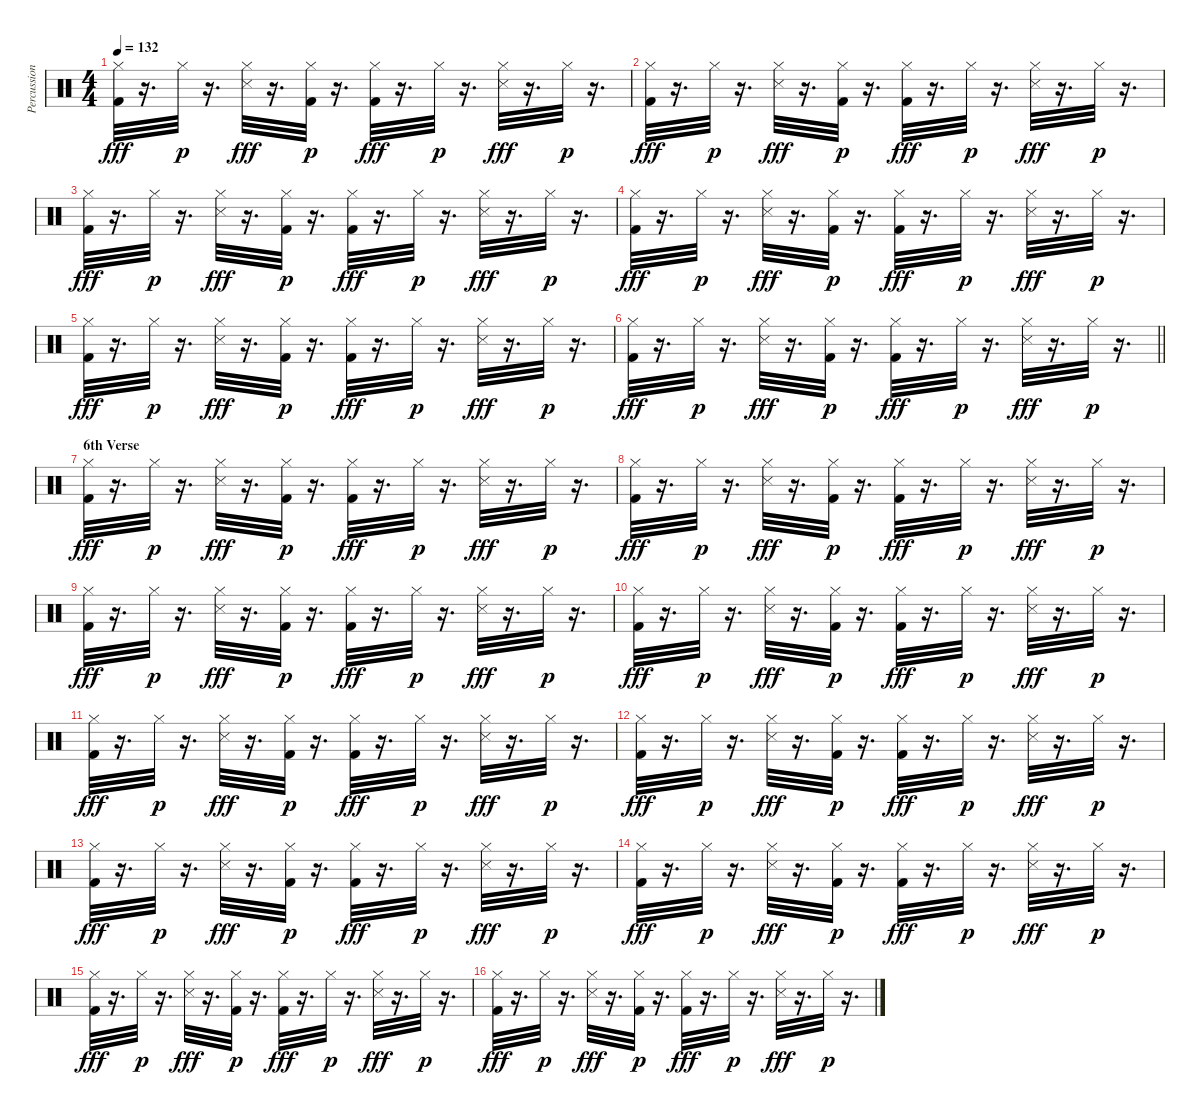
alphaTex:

\track ("Percussion" "Percussion") {instrument percussion}
\staff {score}
\articulation defaults
\ts (4 4)
\tempo 132
\clef neutral
\ks c
("Kick (hit) 2" "Hi-Hat (closed)").32{dy fff} r.16{d} "Hi-Hat (closed)".32{dy p} r.16{d} ("Snare (side stick) 3" "Hi-Hat (closed)").32{dy fff} r.16{d} ("Kick (hit) 2" "Hi-Hat (closed)").32{dy p} r.16{d} ("Kick (hit) 2" "Hi-Hat (closed)").32{dy fff} r.16{d} "Hi-Hat (closed)".32{dy p} r.16{d} ("Hi-Hat (closed)" "Snare (side stick) 3").32{dy fff} r.16{d} "Hi-Hat (closed)".32{dy p} r.16{d} |
("Kick (hit) 2" "Hi-Hat (closed)").32{dy fff} r.16{d} "Hi-Hat (closed)".32{dy p} r.16{d} ("Snare (side stick) 3" "Hi-Hat (closed)").32{dy fff} r.16{d} ("Kick (hit) 2" "Hi-Hat (closed)").32{dy p} r.16{d} ("Kick (hit) 2" "Hi-Hat (closed)").32{dy fff} r.16{d} "Hi-Hat (closed)".32{dy p} r.16{d} ("Snare (side stick) 3" "Hi-Hat (closed)").32{dy fff} r.16{d} "Hi-Hat (closed)".32{dy p} r.16{d} |
("Kick (hit) 2" "Hi-Hat (closed)").32{dy fff} r.16{d} "Hi-Hat (closed)".32{dy p} r.16{d} ("Hi-Hat (closed)" "Snare (side stick) 3").32{dy fff} r.16{d} ("Kick (hit) 2" "Hi-Hat (closed)").32{dy p} r.16{d} ("Kick (hit) 2" "Hi-Hat (closed)").32{dy fff} r.16{d} "Hi-Hat (closed)".32{dy p} r.16{d} ("Hi-Hat (closed)" "Snare (side stick) 3").32{dy fff} r.16{d} "Hi-Hat (closed)".32{dy p} r.16{d} |
("Kick (hit) 2" "Hi-Hat (closed)").32{dy fff} r.16{d} "Hi-Hat (closed)".32{dy p} r.16{d} ("Snare (side stick) 3" "Hi-Hat (closed)").32{dy fff} r.16{d} ("Kick (hit) 2" "Hi-Hat (closed)").32{dy p} r.16{d} ("Kick (hit) 2" "Hi-Hat (closed)").32{dy fff} r.16{d} "Hi-Hat (closed)".32{dy p} r.16{d} ("Hi-Hat (closed)" "Snare (side stick) 3").32{dy fff} r.16{d} "Hi-Hat (closed)".32{dy p} r.16{d} |
("Kick (hit) 2" "Hi-Hat (closed)").32{dy fff} r.16{d} "Hi-Hat (closed)".32{dy p} r.16{d} ("Hi-Hat (closed)" "Snare (side stick) 3").32{dy fff} r.16{d} ("Kick (hit) 2" "Hi-Hat (closed)").32{dy p} r.16{d} ("Kick (hit) 2" "Hi-Hat (closed)").32{dy fff} r.16{d} "Hi-Hat (closed)".32{dy p} r.16{d} ("Hi-Hat (closed)" "Snare (side stick) 3").32{dy fff} r.16{d} "Hi-Hat (closed)".32{dy p} r.16{d} |
\barLineRight lightlight
("Kick (hit) 2" "Hi-Hat (closed)").32{dy fff} r.16{d} "Hi-Hat (closed)".32{dy p} r.16{d} ("Snare (side stick) 3" "Hi-Hat (closed)").32{dy fff} r.16{d} ("Kick (hit) 2" "Hi-Hat (closed)").32{dy p} r.16{d} ("Kick (hit) 2" "Hi-Hat (closed)").32{dy fff} r.16{d} "Hi-Hat (closed)".32{dy p} r.16{d} ("Hi-Hat (closed)" "Snare (side stick) 3").32{dy fff} r.16{d} "Hi-Hat (closed)".32{dy p} r.16{d} |
\section ("" "6th Verse")
("Kick (hit) 2" "Hi-Hat (closed)").32{dy fff} r.16{d} "Hi-Hat (closed)".32{dy p} r.16{d} ("Snare (side stick) 3" "Hi-Hat (closed)").32{dy fff} r.16{d} ("Kick (hit) 2" "Hi-Hat (closed)").32{dy p} r.16{d} ("Kick (hit) 2" "Hi-Hat (closed)").32{dy fff} r.16{d} "Hi-Hat (closed)".32{dy p} r.16{d} ("Snare (side stick) 3" "Hi-Hat (closed)").32{dy fff} r.16{d} "Hi-Hat (closed)".32{dy p} r.16{d} |
("Kick (hit) 2" "Hi-Hat (closed)").32{dy fff} r.16{d} "Hi-Hat (closed)".32{dy p} r.16{d} ("Snare (side stick) 3" "Hi-Hat (closed)").32{dy fff} r.16{d} ("Kick (hit) 2" "Hi-Hat (closed)").32{dy p} r.16{d} ("Kick (hit) 2" "Hi-Hat (closed)").32{dy fff} r.16{d} "Hi-Hat (closed)".32{dy p} r.16{d} ("Snare (side stick) 3" "Hi-Hat (closed)").32{dy fff} r.16{d} "Hi-Hat (closed)".32{dy p} r.16{d} |
("Kick (hit) 2" "Hi-Hat (closed)").32{dy fff} r.16{d} "Hi-Hat (closed)".32{dy p} r.16{d} ("Hi-Hat (closed)" "Snare (side stick) 3").32{dy fff} r.16{d} ("Kick (hit) 2" "Hi-Hat (closed)").32{dy p} r.16{d} ("Kick (hit) 2" "Hi-Hat (closed)").32{dy fff} r.16{d} "Hi-Hat (closed)".32{dy p} r.16{d} ("Snare (side stick) 3" "Hi-Hat (closed)").32{dy fff} r.16{d} "Hi-Hat (closed)".32{dy p} r.16{d} |
("Kick (hit) 2" "Hi-Hat (closed)").32{dy fff} r.16{d} "Hi-Hat (closed)".32{dy p} r.16{d} ("Hi-Hat (closed)" "Snare (side stick) 3").32{dy fff} r.16{d} ("Kick (hit) 2" "Hi-Hat (closed)").32{dy p} r.16{d} ("Kick (hit) 2" "Hi-Hat (closed)").32{dy fff} r.16{d} "Hi-Hat (closed)".32{dy p} r.16{d} ("Snare (side stick) 3" "Hi-Hat (closed)").32{dy fff} r.16{d} "Hi-Hat (closed)".32{dy p} r.16{d} |
("Kick (hit) 2" "Hi-Hat (closed)").32{dy fff} r.16{d} "Hi-Hat (closed)".32{dy p} r.16{d} ("Snare (side stick) 3" "Hi-Hat (closed)").32{dy fff} r.16{d} ("Kick (hit) 2" "Hi-Hat (closed)").32{dy p} r.16{d} ("Kick (hit) 2" "Hi-Hat (closed)").32{dy fff} r.16{d} "Hi-Hat (closed)".32{dy p} r.16{d} ("Snare (side stick) 3" "Hi-Hat (closed)").32{dy fff} r.16{d} "Hi-Hat (closed)".32{dy p} r.16{d} |
("Kick (hit) 2" "Hi-Hat (closed)").32{dy fff} r.16{d} "Hi-Hat (closed)".32{dy p} r.16{d} ("Snare (side stick) 3" "Hi-Hat (closed)").32{dy fff} r.16{d} ("Kick (hit) 2" "Hi-Hat (closed)").32{dy p} r.16{d} ("Kick (hit) 2" "Hi-Hat (closed)").32{dy fff} r.16{d} "Hi-Hat (closed)".32{dy p} r.16{d} ("Hi-Hat (closed)" "Snare (side stick) 3").32{dy fff} r.16{d} "Hi-Hat (closed)".32{dy p} r.16{d} |
("Kick (hit) 2" "Hi-Hat (closed)").32{dy fff} r.16{d} "Hi-Hat (closed)".32{dy p} r.16{d} ("Snare (side stick) 3" "Hi-Hat (closed)").32{dy fff} r.16{d} ("Kick (hit) 2" "Hi-Hat (closed)").32{dy p} r.16{d} ("Kick (hit) 2" "Hi-Hat (closed)").32{dy fff} r.16{d} "Hi-Hat (closed)".32{dy p} r.16{d} ("Hi-Hat (closed)" "Snare (side stick) 3").32{dy fff} r.16{d} "Hi-Hat (closed)".32{dy p} r.16{d} |
("Kick (hit) 2" "Hi-Hat (closed)").32{dy fff} r.16{d} "Hi-Hat (closed)".32{dy p} r.16{d} ("Snare (side stick) 3" "Hi-Hat (closed)").32{dy fff} r.16{d} ("Kick (hit) 2" "Hi-Hat (closed)").32{dy p} r.16{d} ("Kick (hit) 2" "Hi-Hat (closed)").32{dy fff} r.16{d} "Hi-Hat (closed)".32{dy p} r.16{d} ("Hi-Hat (closed)" "Snare (side stick) 3").32{dy fff} r.16{d} "Hi-Hat (closed)".32{dy p} r.16{d} |
("Kick (hit) 2" "Hi-Hat (closed)").32{dy fff} r.16{d} "Hi-Hat (closed)".32{dy p} r.16{d} ("Snare (side stick) 3" "Hi-Hat (closed)").32{dy fff} r.16{d} ("Kick (hit) 2" "Hi-Hat (closed)").32{dy p} r.16{d} ("Kick (hit) 2" "Hi-Hat (closed)").32{dy fff} r.16{d} "Hi-Hat (closed)".32{dy p} r.16{d} ("Snare (side stick) 3" "Hi-Hat (closed)").32{dy fff} r.16{d} "Hi-Hat (closed)".32{dy p} r.16{d} |
("Kick (hit) 2" "Hi-Hat (closed)").32{dy fff} r.16{d} "Hi-Hat (closed)".32{dy p} r.16{d} ("Snare (side stick) 3" "Hi-Hat (closed)").32{dy fff} r.16{d} ("Kick (hit) 2" "Hi-Hat (closed)").32{dy p} r.16{d} ("Kick (hit) 2" "Hi-Hat (closed)").32{dy fff} r.16{d} "Hi-Hat (closed)".32{dy p} r.16{d} ("Hi-Hat (closed)" "Snare (side stick) 3").32{dy fff} r.16{d} "Hi-Hat (closed)".32{dy p} r.16{d}
